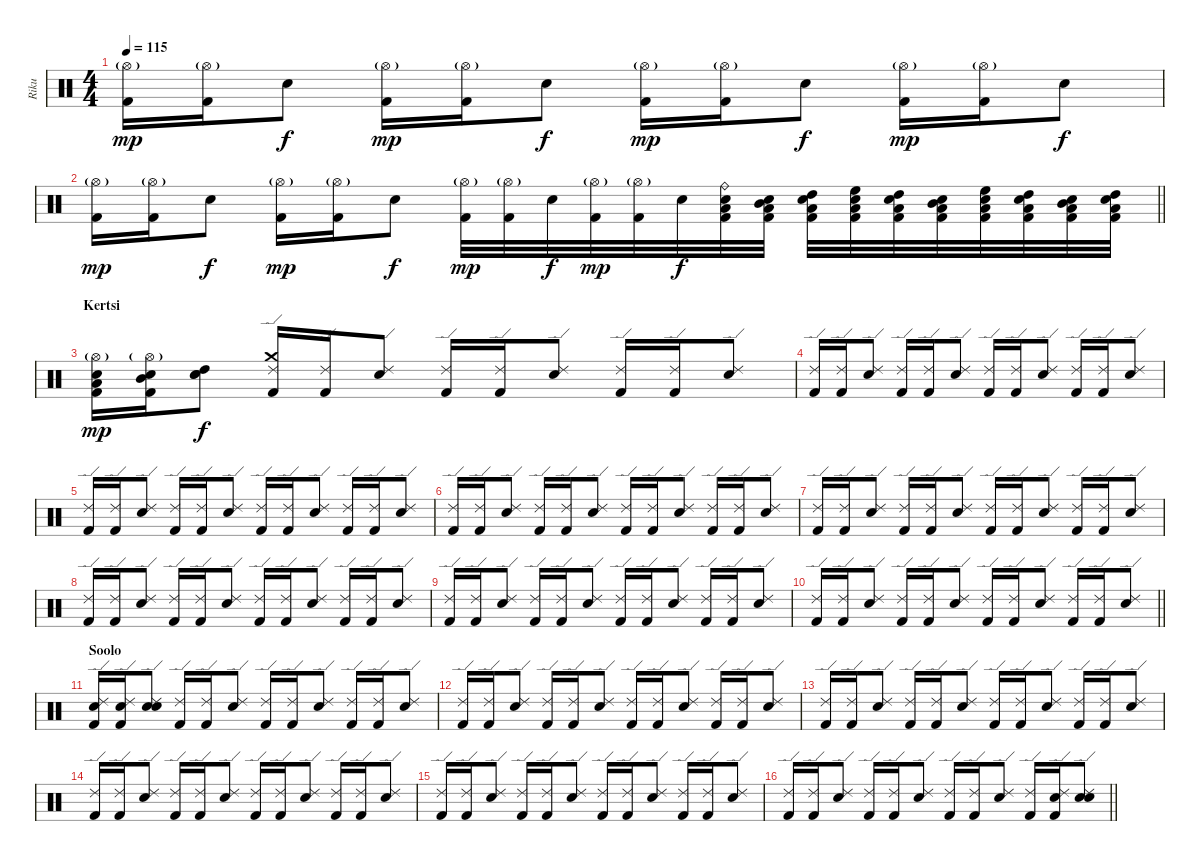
\track ("Riku" "Riku") {instrument percussion}
\staff {score}
\articulation defaults
\ts (4 4)
\tempo 115
\clef neutral
\ks c
("Hi-Hat (open)"{g} "Kick (hit) 2").16{dy mp} ("Hi-Hat (open)"{g} "Kick (hit) 2").16 "Snare (hit) 2".8{dy f} ("Hi-Hat (open)"{g} "Kick (hit) 2").16{dy mp} ("Hi-Hat (open)"{g} "Kick (hit) 2").16 "Snare (hit) 2".8{dy f} ("Hi-Hat (open)"{g} "Kick (hit) 2").16{dy mp} ("Hi-Hat (open)"{g} "Kick (hit) 2").16 "Snare (hit) 2".8{dy f} ("Hi-Hat (open)"{g} "Kick (hit) 2").16{dy mp} ("Hi-Hat (open)"{g} "Kick (hit) 2").16 "Snare (hit) 2".8{dy f} |
\barLineRight lightlight
("Hi-Hat (open)"{g} "Kick (hit) 2").16{dy mp} ("Hi-Hat (open)"{g} "Kick (hit) 2").16 "Snare (hit) 2".8{dy f} ("Hi-Hat (open)"{g} "Kick (hit) 2").16{dy mp} ("Hi-Hat (open)"{g} "Kick (hit) 2").16 "Snare (hit) 2".8{dy f} ("Hi-Hat (open)"{g} "Kick (hit) 2").32{dy mp} ("Hi-Hat (open)"{g} "Kick (hit) 2").32 "Snare (hit) 2".32{dy f} ("Hi-Hat (open)"{g} "Kick (hit) 2").32{dy mp} ("Hi-Hat (open)"{g} "Kick (hit) 2").32 "Snare (hit) 2".32{dy f} ("Ride (bell)" "Electric Snare (hit)" "Low Tom (hit)" "Kick (hit) 2").32 ("Mid Tom (hit)" "Electric Snare (hit)" "Low Tom (hit)" "Kick (hit) 2").32 ("High Tom (hit)" "Electric Snare (hit)" "Low Tom (hit)" "Kick (hit) 2").32 ("High Floor Tom (hit)" "Electric Snare (hit)" "Low Tom (hit)" "Kick (hit) 2").32 ("High Tom (hit)" "Electric Snare (hit)" "Low Tom (hit)" "Kick (hit) 2").32 ("Mid Tom (hit)" "Electric Snare (hit)" "Low Tom (hit)" "Kick (hit) 2").32 ("High Floor Tom (hit)" "Electric Snare (hit)" "Low Tom (hit)" "Kick (hit) 2").32 ("High Tom (hit)" "Electric Snare (hit)" "Low Tom (hit)" "Kick (hit) 2").32 ("Mid Tom (hit)" "Electric Snare (hit)" "Low Tom (hit)" "Kick (hit) 2").32 ("High Tom (hit)" "Electric Snare (hit)" "Low Tom (hit)" "Kick (hit) 2").32 |
\section ("" "Kertsi")
("Low Tom (hit)" "Electric Snare (hit)" "Hi-Hat (open)"{g} "Kick (hit) 2").16{dy mp} ("Mid Tom (hit)" "Electric Snare (hit)" "Hi-Hat (open)"{g} "Kick (hit) 2").16 ("High Tom (hit)" "Electric Snare (hit)" "Snare (hit) 2").8{dy f} ("Crash medium (hit)" "Ride (edge) 2" "Kick (hit) 2").16 ("Ride (edge) 2" "Kick (hit) 2").16 ("Ride (edge) 2" "Snare (hit) 2").8 ("Ride (edge) 2" "Kick (hit) 2").16 ("Ride (edge) 2" "Kick (hit) 2").16 ("Ride (edge) 2" "Snare (hit) 2").8 ("Ride (edge) 2" "Kick (hit) 2").16 ("Ride (edge) 2" "Kick (hit) 2").16 ("Ride (edge) 2" "Snare (hit) 2").8 |
("Ride (edge) 2" "Kick (hit) 2").16 ("Ride (edge) 2" "Kick (hit) 2").16 ("Ride (edge) 2" "Snare (hit) 2").8 ("Ride (edge) 2" "Kick (hit) 2").16 ("Ride (edge) 2" "Kick (hit) 2").16 ("Ride (edge) 2" "Snare (hit) 2").8 ("Ride (edge) 2" "Kick (hit) 2").16 ("Ride (edge) 2" "Kick (hit) 2").16 ("Ride (edge) 2" "Snare (hit) 2").8 ("Ride (edge) 2" "Kick (hit) 2").16 ("Ride (edge) 2" "Kick (hit) 2").16 ("Ride (edge) 2" "Snare (hit) 2").8 |
("Ride (edge) 2" "Kick (hit) 2").16 ("Ride (edge) 2" "Kick (hit) 2").16 ("Ride (edge) 2" "Snare (hit) 2").8 ("Ride (edge) 2" "Kick (hit) 2").16 ("Ride (edge) 2" "Kick (hit) 2").16 ("Ride (edge) 2" "Snare (hit) 2").8 ("Ride (edge) 2" "Kick (hit) 2").16 ("Ride (edge) 2" "Kick (hit) 2").16 ("Ride (edge) 2" "Snare (hit) 2").8 ("Ride (edge) 2" "Kick (hit) 2").16 ("Ride (edge) 2" "Kick (hit) 2").16 ("Ride (edge) 2" "Snare (hit) 2").8 |
("Ride (edge) 2" "Kick (hit) 2").16 ("Ride (edge) 2" "Kick (hit) 2").16 ("Ride (edge) 2" "Snare (hit) 2").8 ("Ride (edge) 2" "Kick (hit) 2").16 ("Ride (edge) 2" "Kick (hit) 2").16 ("Ride (edge) 2" "Snare (hit) 2").8 ("Ride (edge) 2" "Kick (hit) 2").16 ("Ride (edge) 2" "Kick (hit) 2").16 ("Ride (edge) 2" "Snare (hit) 2").8 ("Ride (edge) 2" "Kick (hit) 2").16 ("Ride (edge) 2" "Kick (hit) 2").16 ("Ride (edge) 2" "Snare (hit) 2").8 |
("Ride (edge) 2" "Kick (hit) 2").16 ("Ride (edge) 2" "Kick (hit) 2").16 ("Ride (edge) 2" "Snare (hit) 2").8 ("Ride (edge) 2" "Kick (hit) 2").16 ("Ride (edge) 2" "Kick (hit) 2").16 ("Ride (edge) 2" "Snare (hit) 2").8 ("Ride (edge) 2" "Kick (hit) 2").16 ("Ride (edge) 2" "Kick (hit) 2").16 ("Ride (edge) 2" "Snare (hit) 2").8 ("Ride (edge) 2" "Kick (hit) 2").16 ("Ride (edge) 2" "Kick (hit) 2").16 ("Ride (edge) 2" "Snare (hit) 2").8 |
("Ride (edge) 2" "Kick (hit) 2").16 ("Ride (edge) 2" "Kick (hit) 2").16 ("Ride (edge) 2" "Snare (hit) 2").8 ("Ride (edge) 2" "Kick (hit) 2").16 ("Ride (edge) 2" "Kick (hit) 2").16 ("Ride (edge) 2" "Snare (hit) 2").8 ("Ride (edge) 2" "Kick (hit) 2").16 ("Ride (edge) 2" "Kick (hit) 2").16 ("Ride (edge) 2" "Snare (hit) 2").8 ("Ride (edge) 2" "Kick (hit) 2").16 ("Ride (edge) 2" "Kick (hit) 2").16 ("Ride (edge) 2" "Snare (hit) 2").8 |
("Ride (edge) 2" "Kick (hit) 2").16 ("Ride (edge) 2" "Kick (hit) 2").16 ("Ride (edge) 2" "Snare (hit) 2").8 ("Ride (edge) 2" "Kick (hit) 2").16 ("Ride (edge) 2" "Kick (hit) 2").16 ("Ride (edge) 2" "Snare (hit) 2").8 ("Ride (edge) 2" "Kick (hit) 2").16 ("Ride (edge) 2" "Kick (hit) 2").16 ("Ride (edge) 2" "Snare (hit) 2").8 ("Ride (edge) 2" "Kick (hit) 2").16 ("Ride (edge) 2" "Kick (hit) 2").16 ("Ride (edge) 2" "Snare (hit) 2").8 |
\barLineRight lightlight
("Ride (edge) 2" "Kick (hit) 2").16 ("Ride (edge) 2" "Kick (hit) 2").16 ("Ride (edge) 2" "Snare (hit) 2").8 ("Ride (edge) 2" "Kick (hit) 2").16 ("Ride (edge) 2" "Kick (hit) 2").16 ("Ride (edge) 2" "Snare (hit) 2").8 ("Ride (edge) 2" "Kick (hit) 2").16 ("Ride (edge) 2" "Kick (hit) 2").16 ("Ride (edge) 2" "Snare (hit) 2").8 ("Ride (edge) 2" "Kick (hit) 2").16 ("Ride (edge) 2" "Kick (hit) 2").16 ("Ride (edge) 2" "Snare (hit) 2").8 |
\section ("" "Soolo")
("Electric Snare (hit)" "Ride (edge) 2" "Kick (hit) 2").16 ("Electric Snare (hit)" "Ride (edge) 2" "Kick (hit) 2").16 ("Electric Snare (hit)" "Ride (edge) 2" "Snare (hit) 2").8 ("Ride (edge) 2" "Kick (hit) 2").16 ("Ride (edge) 2" "Kick (hit) 2").16 ("Ride (edge) 2" "Snare (hit) 2").8 ("Ride (edge) 2" "Kick (hit) 2").16 ("Ride (edge) 2" "Kick (hit) 2").16 ("Ride (edge) 2" "Snare (hit) 2").8 ("Ride (edge) 2" "Kick (hit) 2").16 ("Ride (edge) 2" "Kick (hit) 2").16 ("Ride (edge) 2" "Snare (hit) 2").8 |
("Ride (edge) 2" "Kick (hit) 2").16 ("Ride (edge) 2" "Kick (hit) 2").16 ("Ride (edge) 2" "Snare (hit) 2").8 ("Ride (edge) 2" "Kick (hit) 2").16 ("Ride (edge) 2" "Kick (hit) 2").16 ("Ride (edge) 2" "Snare (hit) 2").8 ("Ride (edge) 2" "Kick (hit) 2").16 ("Ride (edge) 2" "Kick (hit) 2").16 ("Ride (edge) 2" "Snare (hit) 2").8 ("Ride (edge) 2" "Kick (hit) 2").16 ("Ride (edge) 2" "Kick (hit) 2").16 ("Ride (edge) 2" "Snare (hit) 2").8 |
("Ride (edge) 2" "Kick (hit) 2").16 ("Ride (edge) 2" "Kick (hit) 2").16 ("Ride (edge) 2" "Snare (hit) 2").8 ("Ride (edge) 2" "Kick (hit) 2").16 ("Ride (edge) 2" "Kick (hit) 2").16 ("Ride (edge) 2" "Snare (hit) 2").8 ("Ride (edge) 2" "Kick (hit) 2").16 ("Ride (edge) 2" "Kick (hit) 2").16 ("Ride (edge) 2" "Snare (hit) 2").8 ("Ride (edge) 2" "Kick (hit) 2").16 ("Ride (edge) 2" "Kick (hit) 2").16 ("Ride (edge) 2" "Snare (hit) 2").8 |
("Ride (edge) 2" "Kick (hit) 2").16 ("Ride (edge) 2" "Kick (hit) 2").16 ("Ride (edge) 2" "Snare (hit) 2").8 ("Ride (edge) 2" "Kick (hit) 2").16 ("Ride (edge) 2" "Kick (hit) 2").16 ("Ride (edge) 2" "Snare (hit) 2").8 ("Ride (edge) 2" "Kick (hit) 2").16 ("Ride (edge) 2" "Kick (hit) 2").16 ("Ride (edge) 2" "Snare (hit) 2").8 ("Ride (edge) 2" "Kick (hit) 2").16 ("Ride (edge) 2" "Kick (hit) 2").16 ("Ride (edge) 2" "Snare (hit) 2").8 |
("Ride (edge) 2" "Kick (hit) 2").16 ("Ride (edge) 2" "Kick (hit) 2").16 ("Ride (edge) 2" "Snare (hit) 2").8 ("Ride (edge) 2" "Kick (hit) 2").16 ("Ride (edge) 2" "Kick (hit) 2").16 ("Ride (edge) 2" "Snare (hit) 2").8 ("Ride (edge) 2" "Kick (hit) 2").16 ("Ride (edge) 2" "Kick (hit) 2").16 ("Ride (edge) 2" "Snare (hit) 2").8 ("Ride (edge) 2" "Kick (hit) 2").16 ("Ride (edge) 2" "Kick (hit) 2").16 ("Ride (edge) 2" "Snare (hit) 2").8 |
\barLineRight lightlight
("Ride (edge) 2" "Kick (hit) 2").16 ("Ride (edge) 2" "Kick (hit) 2").16 ("Ride (edge) 2" "Snare (hit) 2").8 ("Ride (edge) 2" "Kick (hit) 2").16 ("Ride (edge) 2" "Kick (hit) 2").16 ("Ride (edge) 2" "Snare (hit) 2").8 ("Ride (edge) 2" "Kick (hit) 2").16 ("Ride (edge) 2" "Kick (hit) 2").16 ("Ride (edge) 2" "Snare (hit) 2").8 ("Ride (edge) 2" "Kick (hit) 2").16 ("Snare (hit) 2" "Ride (edge) 2" "Kick (hit) 2").16 ("Snare (hit) 2" "Ride (edge) 2" "Snare (hit) 2").8
